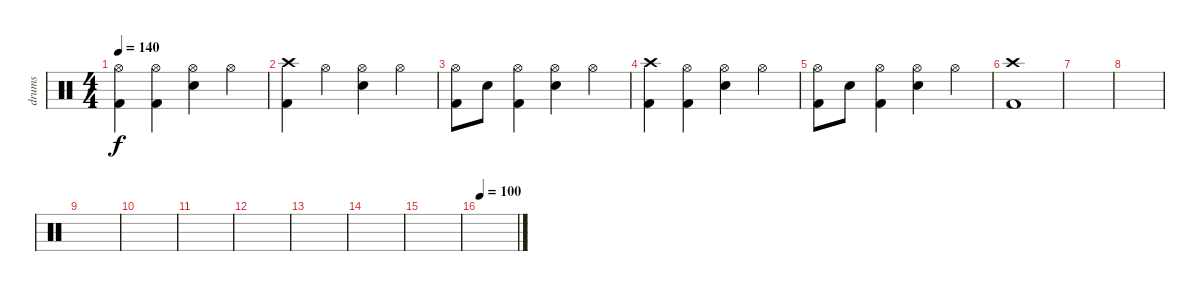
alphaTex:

\track ("drums" "drums") {instrument percussion}
\staff {score}
\articulation defaults
\ts (4 4)
\tempo 140
\clef neutral
\ks c
("Kick (hit) 2" "Hi-Hat (open)").4{dy f} ("Kick (hit) 2" "Hi-Hat (open)").4 ("Snare (hit) 2" "Hi-Hat (open)").4 "Hi-Hat (open)".4 |
("Crash high (hit)" "Kick (hit) 2").4 "Hi-Hat (open)".4 ("Snare (hit) 2" "Hi-Hat (open)").4 "Hi-Hat (open)".4 |
("Kick (hit) 2" "Hi-Hat (open)").8 "Snare (hit) 2".8 ("Kick (hit) 2" "Hi-Hat (open)").4 ("Snare (hit) 2" "Hi-Hat (open)").4 "Hi-Hat (open)".4 |
("Crash high (hit)" "Kick (hit) 2").4 ("Kick (hit) 2" "Hi-Hat (open)").4 ("Snare (hit) 2" "Hi-Hat (open)").4 "Hi-Hat (open)".4 |
("Kick (hit) 2" "Hi-Hat (open)").8 "Snare (hit) 2".8 ("Kick (hit) 2" "Hi-Hat (open)").4 ("Snare (hit) 2" "Hi-Hat (open)").4 "Hi-Hat (open)".4 |
("Crash high (hit)" "Kick (hit) 2").1 |
|
|
|
|
|
|
|
|
|
\tempo 100
